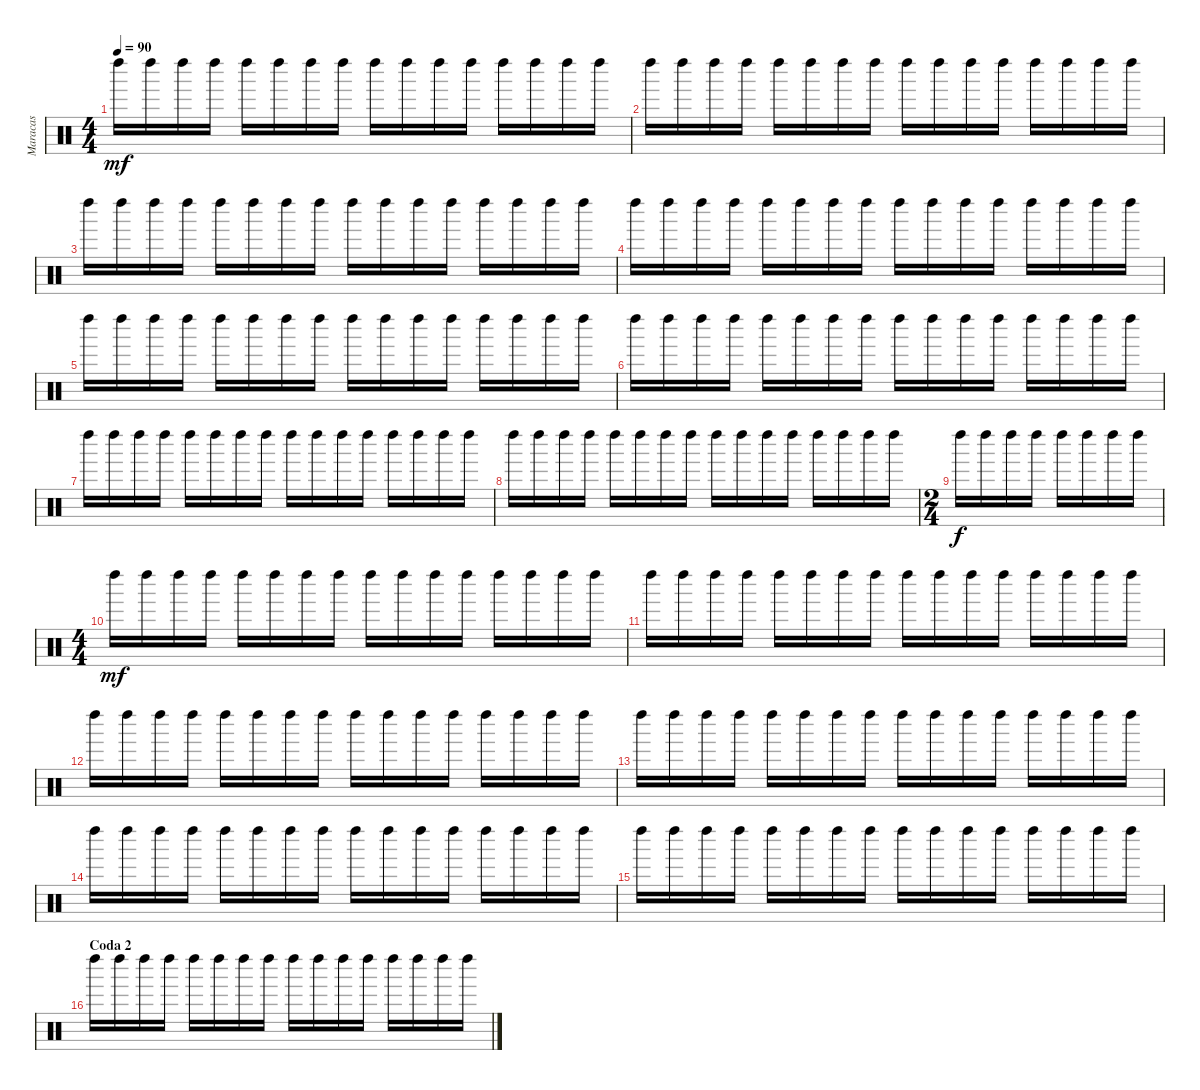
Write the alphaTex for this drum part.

\track ("Maracas" "Maracas") {instrument percussion}
\staff {score}
\articulation defaults
\ts (4 4)
\tempo 90
\clef neutral
\ks c "Left Maraca (hit)".16{dy mf} "Left Maraca (hit)".16 "Left Maraca (hit)".16 "Left Maraca (hit)".16 "Left Maraca (hit)".16 "Left Maraca (hit)".16 "Left Maraca (hit)".16 "Left Maraca (hit)".16 "Left Maraca (hit)".16 "Left Maraca (hit)".16 "Left Maraca (hit)".16 "Left Maraca (hit)".16 "Left Maraca (hit)".16 "Left Maraca (hit)".16 "Left Maraca (hit)".16 "Left Maraca (hit)".16
|
"Left Maraca (hit)".16 "Left Maraca (hit)".16 "Left Maraca (hit)".16 "Left Maraca (hit)".16 "Left Maraca (hit)".16 "Left Maraca (hit)".16 "Left Maraca (hit)".16 "Left Maraca (hit)".16 "Left Maraca (hit)".16 "Left Maraca (hit)".16 "Left Maraca (hit)".16 "Left Maraca (hit)".16 "Left Maraca (hit)".16 "Left Maraca (hit)".16 "Left Maraca (hit)".16 "Left Maraca (hit)".16 |
"Left Maraca (hit)".16 "Left Maraca (hit)".16 "Left Maraca (hit)".16 "Left Maraca (hit)".16 "Left Maraca (hit)".16 "Left Maraca (hit)".16 "Left Maraca (hit)".16 "Left Maraca (hit)".16 "Left Maraca (hit)".16 "Left Maraca (hit)".16 "Left Maraca (hit)".16 "Left Maraca (hit)".16 "Left Maraca (hit)".16 "Left Maraca (hit)".16 "Left Maraca (hit)".16 "Left Maraca (hit)".16 |
"Left Maraca (hit)".16 "Left Maraca (hit)".16 "Left Maraca (hit)".16 "Left Maraca (hit)".16 "Left Maraca (hit)".16 "Left Maraca (hit)".16 "Left Maraca (hit)".16 "Left Maraca (hit)".16 "Left Maraca (hit)".16 "Left Maraca (hit)".16 "Left Maraca (hit)".16 "Left Maraca (hit)".16 "Left Maraca (hit)".16 "Left Maraca (hit)".16 "Left Maraca (hit)".16 "Left Maraca (hit)".16 |
"Left Maraca (hit)".16 "Left Maraca (hit)".16 "Left Maraca (hit)".16 "Left Maraca (hit)".16 "Left Maraca (hit)".16 "Left Maraca (hit)".16 "Left Maraca (hit)".16 "Left Maraca (hit)".16 "Left Maraca (hit)".16 "Left Maraca (hit)".16 "Left Maraca (hit)".16 "Left Maraca (hit)".16 "Left Maraca (hit)".16 "Left Maraca (hit)".16 "Left Maraca (hit)".16 "Left Maraca (hit)".16 |
"Left Maraca (hit)".16 "Left Maraca (hit)".16 "Left Maraca (hit)".16 "Left Maraca (hit)".16 "Left Maraca (hit)".16 "Left Maraca (hit)".16 "Left Maraca (hit)".16 "Left Maraca (hit)".16 "Left Maraca (hit)".16 "Left Maraca (hit)".16 "Left Maraca (hit)".16 "Left Maraca (hit)".16 "Left Maraca (hit)".16 "Left Maraca (hit)".16 "Left Maraca (hit)".16 "Left Maraca (hit)".16 |
"Left Maraca (hit)".16 "Left Maraca (hit)".16 "Left Maraca (hit)".16 "Left Maraca (hit)".16 "Left Maraca (hit)".16 "Left Maraca (hit)".16 "Left Maraca (hit)".16 "Left Maraca (hit)".16 "Left Maraca (hit)".16 "Left Maraca (hit)".16 "Left Maraca (hit)".16 "Left Maraca (hit)".16 "Left Maraca (hit)".16 "Left Maraca (hit)".16 "Left Maraca (hit)".16 "Left Maraca (hit)".16 |
"Left Maraca (hit)".16 "Left Maraca (hit)".16 "Left Maraca (hit)".16 "Left Maraca (hit)".16 "Left Maraca (hit)".16 "Left Maraca (hit)".16 "Left Maraca (hit)".16 "Left Maraca (hit)".16 "Left Maraca (hit)".16 "Left Maraca (hit)".16 "Left Maraca (hit)".16 "Left Maraca (hit)".16 "Left Maraca (hit)".16 "Left Maraca (hit)".16 "Left Maraca (hit)".16 "Left Maraca (hit)".16 |
\ts (2 4)
"Left Maraca (hit)".16{dy f} "Left Maraca (hit)".16 "Left Maraca (hit)".16 "Left Maraca (hit)".16 "Left Maraca (hit)".16 "Left Maraca (hit)".16 "Left Maraca (hit)".16 "Left Maraca (hit)".16 |
\ts (4 4)
"Left Maraca (hit)".16{dy mf} "Left Maraca (hit)".16 "Left Maraca (hit)".16 "Left Maraca (hit)".16 "Left Maraca (hit)".16 "Left Maraca (hit)".16 "Left Maraca (hit)".16 "Left Maraca (hit)".16 "Left Maraca (hit)".16 "Left Maraca (hit)".16 "Left Maraca (hit)".16 "Left Maraca (hit)".16 "Left Maraca (hit)".16 "Left Maraca (hit)".16 "Left Maraca (hit)".16 "Left Maraca (hit)".16 |
"Left Maraca (hit)".16 "Left Maraca (hit)".16 "Left Maraca (hit)".16 "Left Maraca (hit)".16 "Left Maraca (hit)".16 "Left Maraca (hit)".16 "Left Maraca (hit)".16 "Left Maraca (hit)".16 "Left Maraca (hit)".16 "Left Maraca (hit)".16 "Left Maraca (hit)".16 "Left Maraca (hit)".16 "Left Maraca (hit)".16 "Left Maraca (hit)".16 "Left Maraca (hit)".16 "Left Maraca (hit)".16 |
"Left Maraca (hit)".16 "Left Maraca (hit)".16 "Left Maraca (hit)".16 "Left Maraca (hit)".16 "Left Maraca (hit)".16 "Left Maraca (hit)".16 "Left Maraca (hit)".16 "Left Maraca (hit)".16 "Left Maraca (hit)".16 "Left Maraca (hit)".16 "Left Maraca (hit)".16 "Left Maraca (hit)".16 "Left Maraca (hit)".16 "Left Maraca (hit)".16 "Left Maraca (hit)".16 "Left Maraca (hit)".16 |
"Left Maraca (hit)".16 "Left Maraca (hit)".16 "Left Maraca (hit)".16 "Left Maraca (hit)".16 "Left Maraca (hit)".16 "Left Maraca (hit)".16 "Left Maraca (hit)".16 "Left Maraca (hit)".16 "Left Maraca (hit)".16 "Left Maraca (hit)".16 "Left Maraca (hit)".16 "Left Maraca (hit)".16 "Left Maraca (hit)".16 "Left Maraca (hit)".16 "Left Maraca (hit)".16 "Left Maraca (hit)".16 |
"Left Maraca (hit)".16 "Left Maraca (hit)".16 "Left Maraca (hit)".16 "Left Maraca (hit)".16 "Left Maraca (hit)".16 "Left Maraca (hit)".16 "Left Maraca (hit)".16 "Left Maraca (hit)".16 "Left Maraca (hit)".16 "Left Maraca (hit)".16 "Left Maraca (hit)".16 "Left Maraca (hit)".16 "Left Maraca (hit)".16 "Left Maraca (hit)".16 "Left Maraca (hit)".16 "Left Maraca (hit)".16 |
"Left Maraca (hit)".16 "Left Maraca (hit)".16 "Left Maraca (hit)".16 "Left Maraca (hit)".16 "Left Maraca (hit)".16 "Left Maraca (hit)".16 "Left Maraca (hit)".16 "Left Maraca (hit)".16 "Left Maraca (hit)".16 "Left Maraca (hit)".16 "Left Maraca (hit)".16 "Left Maraca (hit)".16 "Left Maraca (hit)".16 "Left Maraca (hit)".16 "Left Maraca (hit)".16 "Left Maraca (hit)".16 |
\section ("" "Coda 2")
"Left Maraca (hit)".16 "Left Maraca (hit)".16 "Left Maraca (hit)".16 "Left Maraca (hit)".16 "Left Maraca (hit)".16 "Left Maraca (hit)".16 "Left Maraca (hit)".16 "Left Maraca (hit)".16 "Left Maraca (hit)".16 "Left Maraca (hit)".16 "Left Maraca (hit)".16 "Left Maraca (hit)".16 "Left Maraca (hit)".16 "Left Maraca (hit)".16 "Left Maraca (hit)".16 "Left Maraca (hit)".16
